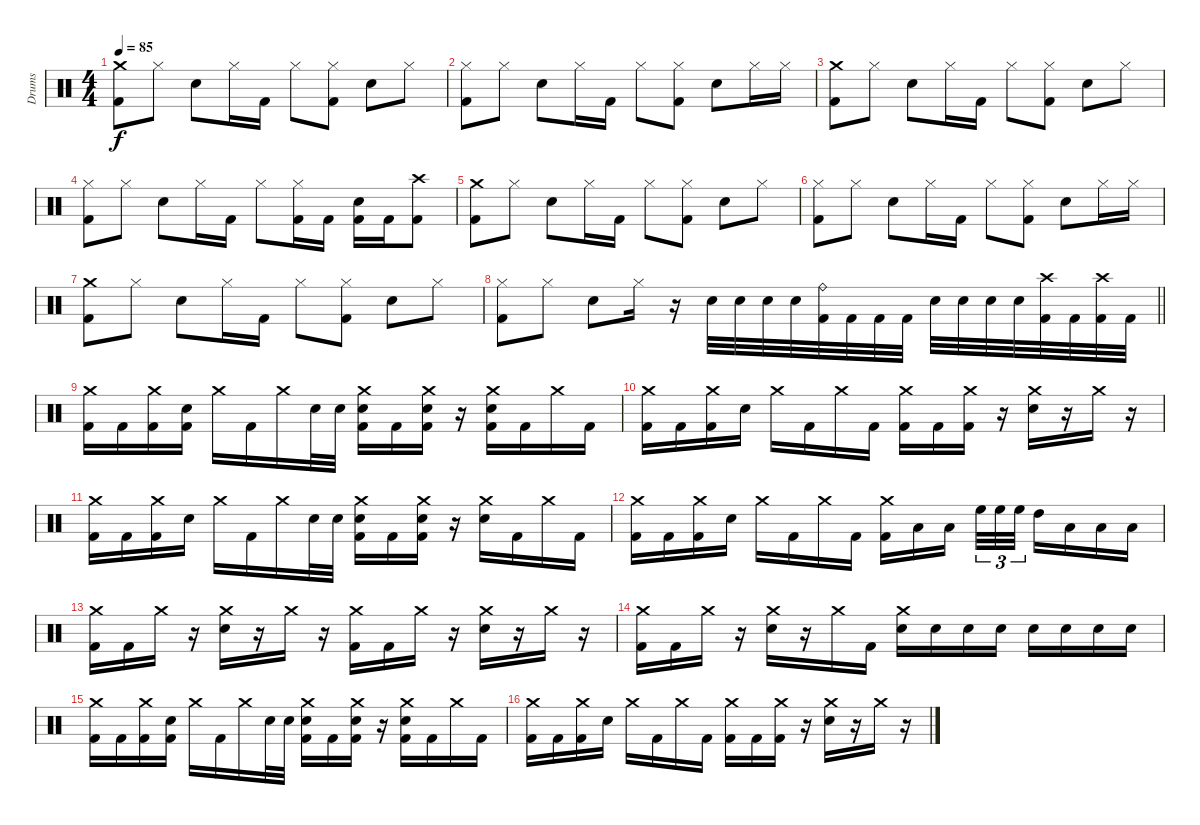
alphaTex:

\track ("Drums" "Drums") {instrument percussion}
\staff {score}
\articulation defaults
\ts (4 4)
\tempo 85
\clef neutral
\ks c
("Crash medium (hit)" "Kick (hit) 2").8{dy f} "Hi-Hat (closed)".8 "Snare (hit) 2".8 "Hi-Hat (closed)".16 "Kick (hit) 2".16 "Hi-Hat (closed)".8 ("Hi-Hat (closed)" "Kick (hit) 2").8 "Snare (hit) 2".8 "Hi-Hat (closed)".8 |
("Hi-Hat (closed)" "Kick (hit) 2").8 "Hi-Hat (closed)".8 "Snare (hit) 2".8 "Hi-Hat (closed)".16 "Kick (hit) 2".16 "Hi-Hat (closed)".8 ("Hi-Hat (closed)" "Kick (hit) 2").8 "Snare (hit) 2".8 "Hi-Hat (closed)".16 "Hi-Hat (closed)".16 |
("Crash medium (hit)" "Kick (hit) 2").8 "Hi-Hat (closed)".8 "Snare (hit) 2".8 "Hi-Hat (closed)".16 "Kick (hit) 2".16 "Hi-Hat (closed)".8 ("Hi-Hat (closed)" "Kick (hit) 2").8 "Snare (hit) 2".8 "Hi-Hat (closed)".8 |
("Hi-Hat (closed)" "Kick (hit) 2").8 "Hi-Hat (closed)".8 "Snare (hit) 2".8 "Hi-Hat (closed)".16 "Kick (hit) 2".16 "Hi-Hat (closed)".8 ("Hi-Hat (closed)" "Kick (hit) 2").16 "Kick (hit) 2".16 ("Snare (hit) 2" "Kick (hit) 2").16 "Kick (hit) 2".16 ("Crash high (hit)" "Kick (hit) 2").8 |
("Crash medium (hit)" "Kick (hit) 2").8 "Hi-Hat (closed)".8 "Snare (hit) 2".8 "Hi-Hat (closed)".16 "Kick (hit) 2".16 "Hi-Hat (closed)".8 ("Hi-Hat (closed)" "Kick (hit) 2").8 "Snare (hit) 2".8 "Hi-Hat (closed)".8 |
("Hi-Hat (closed)" "Kick (hit) 2").8 "Hi-Hat (closed)".8 "Snare (hit) 2".8 "Hi-Hat (closed)".16 "Kick (hit) 2".16 "Hi-Hat (closed)".8 ("Hi-Hat (closed)" "Kick (hit) 2").8 "Snare (hit) 2".8 "Hi-Hat (closed)".16 "Hi-Hat (closed)".16 |
("Crash medium (hit)" "Kick (hit) 2").8 "Hi-Hat (closed)".8 "Snare (hit) 2".8 "Hi-Hat (closed)".16 "Kick (hit) 2".16 "Hi-Hat (closed)".8 ("Hi-Hat (closed)" "Kick (hit) 2").8 "Snare (hit) 2".8 "Hi-Hat (closed)".8 |
\barLineRight lightlight
("Hi-Hat (closed)" "Kick (hit) 2").8 "Hi-Hat (closed)".8 "Snare (hit) 2".8 "Hi-Hat (closed)".16 r.16 "Snare (hit) 2".32 "Snare (hit) 2".32 "Snare (hit) 2".32 "Snare (hit) 2".32 ("Ride (bell)" "Kick (hit) 2").32 "Kick (hit) 2".32 "Kick (hit) 2".32 "Kick (hit) 2".32 "Snare (hit) 2".32 "Snare (hit) 2".32 "Snare (hit) 2".32 "Snare (hit) 2".32 ("Crash high (hit)" "Kick (hit) 2").32 "Kick (hit) 2".32 ("Crash high (hit)" "Kick (hit) 2").32 "Kick (hit) 2".32 |
("Crash medium (hit)" "Kick (hit) 2").16 "Kick (hit) 2".16 ("Crash medium (hit)" "Kick (hit) 2").16 ("Snare (hit) 2" "Kick (hit) 2").16 "Crash medium (hit)".16 "Kick (hit) 2".16 "Crash medium (hit)".16 "Snare (hit) 2".32 "Snare (hit) 2".32 ("Crash medium (hit)" "Snare (hit) 2" "Kick (hit) 2").16 "Kick (hit) 2".16 ("Crash medium (hit)" "Snare (hit) 2" "Kick (hit) 2").16 r.16 ("Crash medium (hit)" "Snare (hit) 2" "Kick (hit) 2").16 "Kick (hit) 2".16 "Crash medium (hit)".16 "Kick (hit) 2".16 |
("Crash medium (hit)" "Kick (hit) 2").16 "Kick (hit) 2".16 ("Crash medium (hit)" "Kick (hit) 2").16 "Snare (hit) 2".16 "Crash medium (hit)".16 "Kick (hit) 2".16 "Crash medium (hit)".16 "Kick (hit) 2".16 ("Crash medium (hit)" "Kick (hit) 2").16 "Kick (hit) 2".16 ("Crash medium (hit)" "Kick (hit) 2").16 r.16 ("Crash medium (hit)" "Snare (hit) 2").16 r.16 "Crash medium (hit)".16 r.16 |
("Crash medium (hit)" "Kick (hit) 2").16 "Kick (hit) 2".16 ("Crash medium (hit)" "Kick (hit) 2").16 "Snare (hit) 2".16 "Crash medium (hit)".16 "Kick (hit) 2".16 "Crash medium (hit)".16 "Snare (hit) 2".32 "Snare (hit) 2".32 ("Crash medium (hit)" "Snare (hit) 2" "Kick (hit) 2").16 "Kick (hit) 2".16 ("Crash medium (hit)" "Snare (hit) 2" "Kick (hit) 2").16 r.16 ("Crash medium (hit)" "Snare (hit) 2").16 "Kick (hit) 2".16 "Crash medium (hit)".16 "Kick (hit) 2".16 |
("Crash medium (hit)" "Kick (hit) 2").16 "Kick (hit) 2".16 ("Crash medium (hit)" "Kick (hit) 2").16 "Snare (hit) 2".16 "Crash medium (hit)".16 "Kick (hit) 2".16 "Crash medium (hit)".16 "Kick (hit) 2".16 ("Crash medium (hit)" "Kick (hit) 2").16 "Low Tom (hit)".16 "Low Tom (hit)".16 "High Floor Tom (hit)".32{tu (3 2)} "High Floor Tom (hit)".32{tu (3 2)} "High Floor Tom (hit)".32{tu (3 2)} "High Tom (hit)".16 "Low Tom (hit)".16 "Low Tom (hit)".16 "Low Floor Tom (hit)".16 |
("Crash medium (hit)" "Kick (hit) 2").16 "Kick (hit) 2".16 "Crash medium (hit)".16 r.16 ("Crash medium (hit)" "Snare (hit) 2").16 r.16 "Crash medium (hit)".16 r.16 ("Crash medium (hit)" "Kick (hit) 2").16 "Kick (hit) 2".16 "Crash medium (hit)".16 r.16 ("Crash medium (hit)" "Snare (hit) 2").16 r.16 "Crash medium (hit)".16 r.16 |
("Crash medium (hit)" "Kick (hit) 2").16 "Kick (hit) 2".16 "Crash medium (hit)".16 r.16 ("Crash medium (hit)" "Snare (hit) 2").16 r.16 "Crash medium (hit)".16 "Kick (hit) 2".16 ("Crash medium (hit)" "Snare (hit) 2").16 "Snare (hit) 2".16 "Snare (hit) 2".16 "Snare (hit) 2".16 "Snare (hit) 2".16 "Snare (hit) 2".16 "Snare (hit) 2".16 "Snare (hit) 2".16 |
("Crash medium (hit)" "Kick (hit) 2").16 "Kick (hit) 2".16 ("Crash medium (hit)" "Kick (hit) 2").16 ("Snare (hit) 2" "Kick (hit) 2").16 "Crash medium (hit)".16 "Kick (hit) 2".16 "Crash medium (hit)".16 "Snare (hit) 2".32 "Snare (hit) 2".32 ("Crash medium (hit)" "Snare (hit) 2" "Kick (hit) 2").16 "Kick (hit) 2".16 ("Crash medium (hit)" "Snare (hit) 2" "Kick (hit) 2").16 r.16 ("Crash medium (hit)" "Snare (hit) 2" "Kick (hit) 2").16 "Kick (hit) 2".16 "Crash medium (hit)".16 "Kick (hit) 2".16 |
("Crash medium (hit)" "Kick (hit) 2").16 "Kick (hit) 2".16 ("Crash medium (hit)" "Kick (hit) 2").16 "Snare (hit) 2".16 "Crash medium (hit)".16 "Kick (hit) 2".16 "Crash medium (hit)".16 "Kick (hit) 2".16 ("Crash medium (hit)" "Kick (hit) 2").16 "Kick (hit) 2".16 ("Crash medium (hit)" "Kick (hit) 2").16 r.16 ("Crash medium (hit)" "Snare (hit) 2").16 r.16 "Crash medium (hit)".16 r.16
